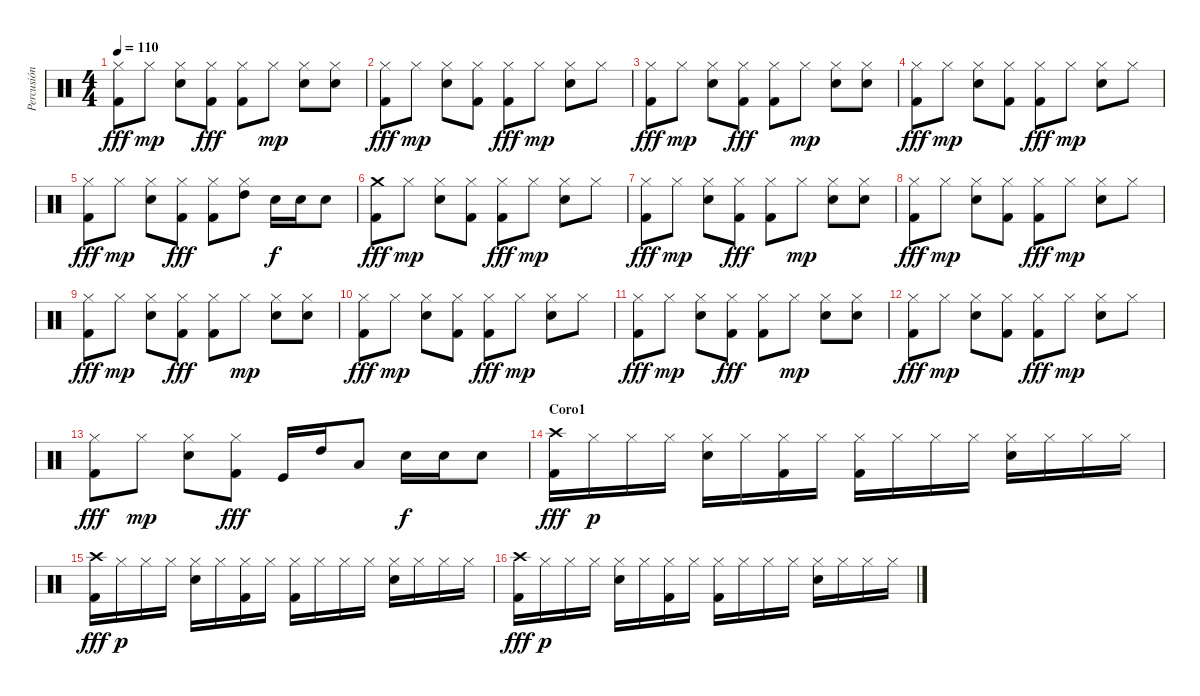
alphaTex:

\track ("Percusión" "Percusión") {instrument percussion}
\staff {score}
\articulation defaults
\ts (4 4)
\tempo 110
\clef neutral
\ks c
("Hi-Hat (closed)" "Kick (hit) 2").8{dy fff} "Hi-Hat (closed)".8{dy mp} ("Hi-Hat (closed)" "Snare (hit) 2").8 ("Hi-Hat (closed)" "Kick (hit) 2").8{dy fff} ("Hi-Hat (closed)" "Kick (hit) 2").8 "Hi-Hat (closed)".8{dy mp} ("Hi-Hat (closed)" "Snare (hit) 2").8 ("Hi-Hat (closed)" "Snare (hit) 2").8 |
("Hi-Hat (closed)" "Kick (hit) 2").8{dy fff} "Hi-Hat (closed)".8{dy mp} ("Hi-Hat (closed)" "Snare (hit) 2").8 ("Hi-Hat (closed)" "Kick (hit) 2").8 ("Hi-Hat (closed)" "Kick (hit) 2").8{dy fff} "Hi-Hat (closed)".8{dy mp} ("Hi-Hat (closed)" "Snare (hit) 2").8 "Hi-Hat (closed)".8 |
("Hi-Hat (closed)" "Kick (hit) 2").8{dy fff} "Hi-Hat (closed)".8{dy mp} ("Hi-Hat (closed)" "Snare (hit) 2").8 ("Hi-Hat (closed)" "Kick (hit) 2").8{dy fff} ("Hi-Hat (closed)" "Kick (hit) 2").8 "Hi-Hat (closed)".8{dy mp} ("Hi-Hat (closed)" "Snare (hit) 2").8 ("Hi-Hat (closed)" "Snare (hit) 2").8 |
("Hi-Hat (closed)" "Kick (hit) 2").8{dy fff} "Hi-Hat (closed)".8{dy mp} ("Hi-Hat (closed)" "Snare (hit) 2").8 ("Hi-Hat (closed)" "Kick (hit) 2").8 ("Hi-Hat (closed)" "Kick (hit) 2").8{dy fff} "Hi-Hat (closed)".8{dy mp} ("Hi-Hat (closed)" "Snare (hit) 2").8 "Hi-Hat (closed)".8 |
("Hi-Hat (closed)" "Kick (hit) 2").8{dy fff} "Hi-Hat (closed)".8{dy mp} ("Hi-Hat (closed)" "Snare (hit) 2").8 ("Hi-Hat (closed)" "Kick (hit) 2").8{dy fff} ("Hi-Hat (closed)" "Kick (hit) 2").8 ("Hi-Hat (closed)" "High Tom (hit)").8 "Snare (hit) 2".16{dy f} "Snare (hit) 2".16 "Snare (hit) 2".8 |
("Crash medium (hit)" "Kick (hit) 2").8{dy fff} "Hi-Hat (closed)".8{dy mp} ("Hi-Hat (closed)" "Snare (hit) 2").8 ("Hi-Hat (closed)" "Kick (hit) 2").8 ("Hi-Hat (closed)" "Kick (hit) 2").8{dy fff} "Hi-Hat (closed)".8{dy mp} ("Hi-Hat (closed)" "Snare (hit) 2").8 "Hi-Hat (closed)".8 |
("Hi-Hat (closed)" "Kick (hit) 2").8{dy fff} "Hi-Hat (closed)".8{dy mp} ("Hi-Hat (closed)" "Snare (hit) 2").8 ("Hi-Hat (closed)" "Kick (hit) 2").8{dy fff} ("Hi-Hat (closed)" "Kick (hit) 2").8 "Hi-Hat (closed)".8{dy mp} ("Hi-Hat (closed)" "Snare (hit) 2").8 ("Hi-Hat (closed)" "Snare (hit) 2").8 |
("Hi-Hat (closed)" "Kick (hit) 2").8{dy fff} "Hi-Hat (closed)".8{dy mp} ("Hi-Hat (closed)" "Snare (hit) 2").8 ("Hi-Hat (closed)" "Kick (hit) 2").8 ("Hi-Hat (closed)" "Kick (hit) 2").8{dy fff} "Hi-Hat (closed)".8{dy mp} ("Hi-Hat (closed)" "Snare (hit) 2").8 "Hi-Hat (closed)".8 |
("Hi-Hat (closed)" "Kick (hit) 2").8{dy fff} "Hi-Hat (closed)".8{dy mp} ("Hi-Hat (closed)" "Snare (hit) 2").8 ("Hi-Hat (closed)" "Kick (hit) 2").8{dy fff} ("Hi-Hat (closed)" "Kick (hit) 2").8 "Hi-Hat (closed)".8{dy mp} ("Hi-Hat (closed)" "Snare (hit) 2").8 ("Hi-Hat (closed)" "Snare (hit) 2").8 |
("Hi-Hat (closed)" "Kick (hit) 2").8{dy fff} "Hi-Hat (closed)".8{dy mp} ("Hi-Hat (closed)" "Snare (hit) 2").8 ("Hi-Hat (closed)" "Kick (hit) 2").8 ("Hi-Hat (closed)" "Kick (hit) 2").8{dy fff} "Hi-Hat (closed)".8{dy mp} ("Hi-Hat (closed)" "Snare (hit) 2").8 "Hi-Hat (closed)".8 |
("Hi-Hat (closed)" "Kick (hit) 2").8{dy fff} "Hi-Hat (closed)".8{dy mp} ("Hi-Hat (closed)" "Snare (hit) 2").8 ("Hi-Hat (closed)" "Kick (hit) 2").8{dy fff} ("Hi-Hat (closed)" "Kick (hit) 2").8 "Hi-Hat (closed)".8{dy mp} ("Hi-Hat (closed)" "Snare (hit) 2").8 ("Hi-Hat (closed)" "Snare (hit) 2").8 |
("Hi-Hat (closed)" "Kick (hit) 2").8{dy fff} "Hi-Hat (closed)".8{dy mp} ("Hi-Hat (closed)" "Snare (hit) 2").8 ("Hi-Hat (closed)" "Kick (hit) 2").8 ("Hi-Hat (closed)" "Kick (hit) 2").8{dy fff} "Hi-Hat (closed)".8{dy mp} ("Hi-Hat (closed)" "Snare (hit) 2").8 "Hi-Hat (closed)".8 |
("Hi-Hat (closed)" "Kick (hit) 2").8{dy fff} "Hi-Hat (closed)".8{dy mp} ("Hi-Hat (closed)" "Snare (hit) 2").8 ("Hi-Hat (closed)" "Kick (hit) 2").8{dy fff} "Kick (hit)".16 "High Tom (hit)".16 "Low Tom (hit)".8 "Snare (hit) 2".16{dy f} "Snare (hit) 2".16 "Snare (hit) 2".8 |
\section ("" "Coro1")
("Crash high (hit)" "Kick (hit) 2").16{dy fff} "Hi-Hat (closed)".16{dy p} "Hi-Hat (closed)".16 "Hi-Hat (closed)".16 ("Hi-Hat (closed)" "Snare (hit) 2").16 "Hi-Hat (closed)".16 ("Hi-Hat (closed)" "Kick (hit) 2").16 "Hi-Hat (closed)".16 ("Hi-Hat (closed)" "Kick (hit) 2").16 "Hi-Hat (closed)".16 "Hi-Hat (closed)".16 "Hi-Hat (closed)".16 ("Hi-Hat (closed)" "Snare (hit) 2").16 "Hi-Hat (closed)".16 "Hi-Hat (closed)".16 "Hi-Hat (closed)".16 |
("Crash high (hit)" "Kick (hit) 2").16{dy fff} "Hi-Hat (closed)".16{dy p} "Hi-Hat (closed)".16 "Hi-Hat (closed)".16 ("Hi-Hat (closed)" "Snare (hit) 2").16 "Hi-Hat (closed)".16 ("Hi-Hat (closed)" "Kick (hit) 2").16 "Hi-Hat (closed)".16 ("Hi-Hat (closed)" "Kick (hit) 2").16 "Hi-Hat (closed)".16 "Hi-Hat (closed)".16 "Hi-Hat (closed)".16 ("Hi-Hat (closed)" "Snare (hit) 2").16 "Hi-Hat (closed)".16 "Hi-Hat (closed)".16 "Hi-Hat (closed)".16 |
("Crash high (hit)" "Kick (hit) 2").16{dy fff} "Hi-Hat (closed)".16{dy p} "Hi-Hat (closed)".16 "Hi-Hat (closed)".16 ("Hi-Hat (closed)" "Snare (hit) 2").16 "Hi-Hat (closed)".16 ("Hi-Hat (closed)" "Kick (hit) 2").16 "Hi-Hat (closed)".16 ("Hi-Hat (closed)" "Kick (hit) 2").16 "Hi-Hat (closed)".16 "Hi-Hat (closed)".16 "Hi-Hat (closed)".16 ("Hi-Hat (closed)" "Snare (hit) 2").16 "Hi-Hat (closed)".16 "Hi-Hat (closed)".16 "Hi-Hat (closed)".16
